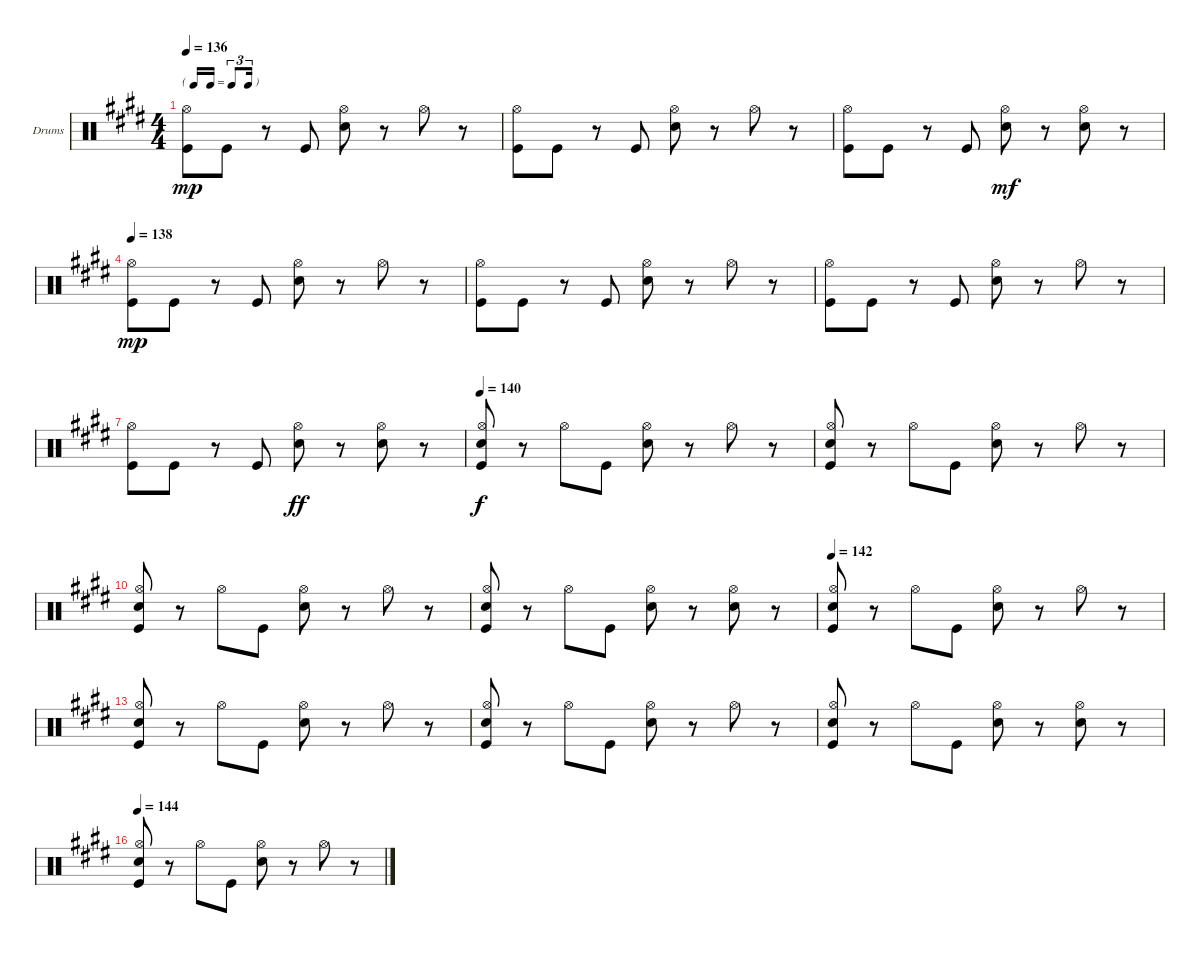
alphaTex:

\bracketExtendMode nobrackets
\firstSystemTrackNameOrientation horizontal
\otherSystemsTrackNameOrientation horizontal
\defaultBarNumberDisplay FirstOfSystem
\track ("Drumkit" "Drums") {instrument percussion}
\staff {score}
\articulation defaults
\ts (4 4)
\tf triplet16th
\tempo 136
\clef neutral
\ks c#minor
("Kick (hit)" "Hi-Hat (open)").8{dy mp} "Kick (hit)".8 r.8 "Kick (hit)".8 ("Snare (hit) 2" "Hi-Hat (open)").8 r.8 "Hi-Hat (open)".8 r.8 |
("Kick (hit)" "Hi-Hat (open)").8 "Kick (hit)".8 r.8 "Kick (hit)".8 ("Snare (hit) 2" "Hi-Hat (open)").8 r.8 "Hi-Hat (open)".8 r.8 |
("Kick (hit)" "Hi-Hat (open)").8 "Kick (hit)".8 r.8 "Kick (hit)".8 ("Snare (hit) 2" "Hi-Hat (open)").8{dy mf} r.8 ("Snare (hit) 2" "Hi-Hat (open)").8 r.8 |
\tempo 138
\ks e
("Kick (hit)" "Hi-Hat (open)").8{dy mp} "Kick (hit)".8 r.8 "Kick (hit)".8 ("Snare (hit) 2" "Hi-Hat (open)").8 r.8 "Hi-Hat (open)".8 r.8 |
\ks c#minor
("Kick (hit)" "Hi-Hat (open)").8 "Kick (hit)".8 r.8 "Kick (hit)".8 ("Snare (hit) 2" "Hi-Hat (open)").8 r.8 "Hi-Hat (open)".8 r.8 |
("Kick (hit)" "Hi-Hat (open)").8 "Kick (hit)".8 r.8 "Kick (hit)".8 ("Snare (hit) 2" "Hi-Hat (open)").8 r.8 "Hi-Hat (open)".8 r.8 |
("Kick (hit)" "Hi-Hat (open)").8 "Kick (hit)".8 r.8 "Kick (hit)".8 ("Snare (hit) 2" "Hi-Hat (open)").8{dy ff} r.8 ("Snare (hit) 2" "Hi-Hat (open)").8 r.8 |
\tempo 140
\ks e
("Hi-Hat (open)" "Snare (hit) 2" "Kick (hit)").8{dy f} r.8 "Hi-Hat (open)".8 "Kick (hit)".8 ("Snare (hit) 2" "Hi-Hat (open)").8 r.8 "Hi-Hat (open)".8 r.8 |
\ks c#minor
("Hi-Hat (open)" "Snare (hit) 2" "Kick (hit)").8 r.8 "Hi-Hat (open)".8 "Kick (hit)".8 ("Snare (hit) 2" "Hi-Hat (open)").8 r.8 "Hi-Hat (open)".8 r.8 |
("Hi-Hat (open)" "Snare (hit) 2" "Kick (hit)").8 r.8 "Hi-Hat (open)".8 "Kick (hit)".8 ("Snare (hit) 2" "Hi-Hat (open)").8 r.8 "Hi-Hat (open)".8 r.8 |
("Hi-Hat (open)" "Snare (hit) 2" "Kick (hit)").8 r.8 "Hi-Hat (open)".8 "Kick (hit)".8 ("Snare (hit) 2" "Hi-Hat (open)").8 r.8 ("Hi-Hat (open)" "Snare (hit) 2").8 r.8 |
\tempo 142
\ks e
("Hi-Hat (open)" "Snare (hit) 2" "Kick (hit)").8 r.8 "Hi-Hat (open)".8 "Kick (hit)".8 ("Snare (hit) 2" "Hi-Hat (open)").8 r.8 "Hi-Hat (open)".8 r.8 |
\ks c#minor
("Hi-Hat (open)" "Snare (hit) 2" "Kick (hit)").8 r.8 "Hi-Hat (open)".8 "Kick (hit)".8 ("Snare (hit) 2" "Hi-Hat (open)").8 r.8 "Hi-Hat (open)".8 r.8 |
("Hi-Hat (open)" "Snare (hit) 2" "Kick (hit)").8 r.8 "Hi-Hat (open)".8 "Kick (hit)".8 ("Snare (hit) 2" "Hi-Hat (open)").8 r.8 "Hi-Hat (open)".8 r.8 |
("Hi-Hat (open)" "Snare (hit) 2" "Kick (hit)").8 r.8 "Hi-Hat (open)".8 "Kick (hit)".8 ("Snare (hit) 2" "Hi-Hat (open)").8 r.8 ("Hi-Hat (open)" "Snare (hit) 2").8 r.8 |
\tempo 144
\ks e
("Hi-Hat (open)" "Snare (hit) 2" "Kick (hit)").8 r.8 "Hi-Hat (open)".8 "Kick (hit)".8 ("Snare (hit) 2" "Hi-Hat (open)").8 r.8 "Hi-Hat (open)".8 r.8
